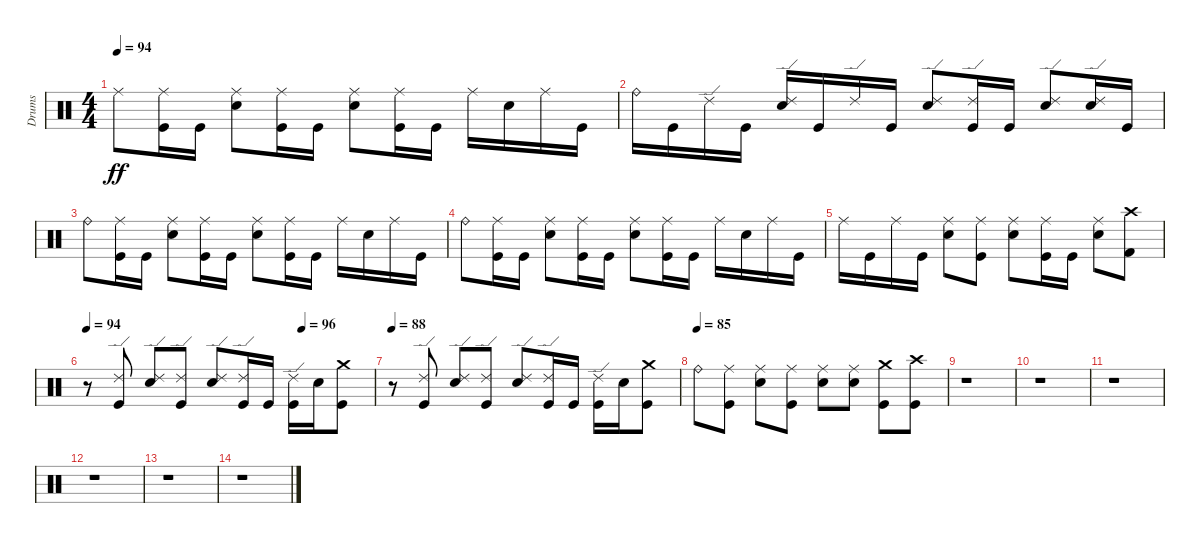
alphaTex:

\track ("Drums" "Drums") {instrument percussion}
\staff {score}
\articulation defaults
\ts (4 4)
\tempo 94
\clef neutral
\ks c "Ride (middle)".8{dy ff}
("Ride (middle)" "Kick (hit)").16 "Kick (hit)".16 ("Ride (middle)" "Electric Snare (hit)").8 ("Ride (middle)" "Kick (hit)").16 "Kick (hit)".16 ("Ride (middle)" "Electric Snare (hit)").8 ("Ride (middle)" "Kick (hit)").16 "Kick (hit)".16 "Ride (middle)".16 "Electric Snare (hit)".16 "Ride (middle)".16 "Kick (hit)".16 |
"Ride (bell)".16 "Kick (hit)".16 "Ride (edge) 2".16 "Kick (hit)".16 ("Ride (edge) 2" "Electric Snare (hit)").16 "Kick (hit)".16 "Ride (edge) 2".16 "Kick (hit)".16 ("Ride (edge) 2" "Electric Snare (hit)").8 ("Ride (edge) 2" "Kick (hit)").16 "Kick (hit)".16 ("Ride (edge) 2" "Electric Snare (hit)").8 ("Ride (edge) 2" "Electric Snare (hit)").16 "Kick (hit)".16 |
"Ride (bell)".8 ("Ride (middle)" "Kick (hit)").16 "Kick (hit)".16 ("Ride (middle)" "Electric Snare (hit)").8 ("Ride (middle)" "Kick (hit)").16 "Kick (hit)".16 ("Ride (middle)" "Electric Snare (hit)").8 ("Ride (middle)" "Kick (hit)").16 "Kick (hit)".16 "Ride (middle)".16 "Electric Snare (hit)".16 "Ride (middle)".16 "Kick (hit)".16 |
"Ride (bell)".8 ("Ride (middle)" "Kick (hit)").16 "Kick (hit)".16 ("Ride (middle)" "Electric Snare (hit)").8 ("Ride (middle)" "Kick (hit)").16 "Kick (hit)".16 ("Ride (middle)" "Electric Snare (hit)").8 ("Ride (middle)" "Kick (hit)").16 "Kick (hit)".16 "Ride (middle)".16 "Electric Snare (hit)".16 "Ride (middle)".16 "Kick (hit)".16 |
"Ride (middle)".16 "Kick (hit)".16 "Ride (middle)".16 "Kick (hit)".16 ("Ride (middle)" "Electric Snare (hit)").8 ("Ride (middle)" "Kick (hit)").8 ("Ride (middle)" "Electric Snare (hit)").8 ("Ride (middle)" "Kick (hit)").16 "Kick (hit)".16 ("Ride (middle)" "Electric Snare (hit)").8 ("Crash high (hit)" "Kick (hit) 2").8 |
\tempo 94
\tempo (96 0.75)
r.8 ("Ride (edge) 2" "Kick (hit)").8 ("Ride (edge) 2" "Electric Snare (hit)").8 ("Ride (edge) 2" "Kick (hit)").8 ("Ride (edge) 2" "Electric Snare (hit)").8 ("Ride (edge) 2" "Kick (hit)").16 "Kick (hit)".16 ("Ride (edge) 2" "Kick (hit)").16 "Electric Snare (hit)".16 ("Crash medium (hit)" "Kick (hit)").8 |
\tempo 88
r.8 ("Ride (edge) 2" "Kick (hit)").8 ("Ride (edge) 2" "Electric Snare (hit)").8 ("Ride (edge) 2" "Kick (hit)").8 ("Ride (edge) 2" "Electric Snare (hit)").8 ("Ride (edge) 2" "Kick (hit)").16 "Kick (hit)".16 ("Ride (edge) 2" "Kick (hit)").16 "Electric Snare (hit)".16 ("Crash medium (hit)" "Kick (hit)").8 |
\tempo (85)
"Ride (bell)".8 ("Ride (middle)" "Kick (hit)").8 ("Ride (middle)" "Electric Snare (hit)").8 ("Ride (middle)" "Kick (hit)").8 ("Ride (middle)" "Electric Snare (hit)").8 ("Ride (middle)" "Electric Snare (hit)").8 ("Crash medium (hit)" "Kick (hit)").8 ("Crash high (hit)" "Kick (hit)").8 |
r.1 |
r.1 |
r.1 |
r.1 |
r.1 |
r.1
